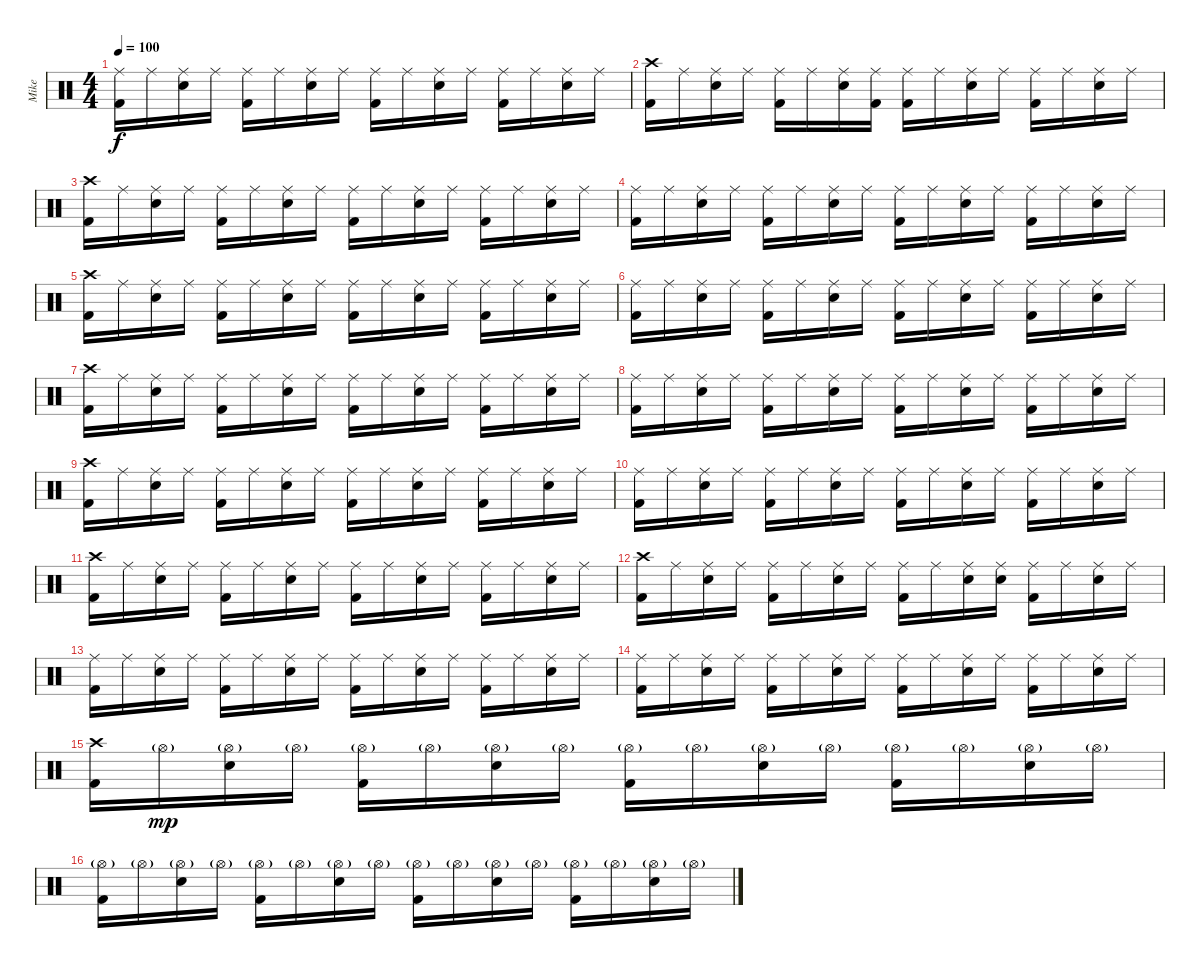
\track ("Mike" "Mike") {instrument percussion}
\staff {score}
\articulation defaults
\ts (4 4)
\tempo 100
\clef neutral
\ks c
("Ride (middle)" "Kick (hit) 2").16{dy f} "Ride (middle)".16 ("Ride (middle)" "Snare (hit) 2").16 "Ride (middle)".16 ("Ride (middle)" "Kick (hit) 2").16 "Ride (middle)".16 ("Ride (middle)" "Snare (hit) 2").16 "Ride (middle)".16 ("Ride (middle)" "Kick (hit) 2").16 "Ride (middle)".16 ("Ride (middle)" "Snare (hit) 2").16 "Ride (middle)".16 ("Ride (middle)" "Kick (hit) 2").16 "Ride (middle)".16 ("Ride (middle)" "Snare (hit) 2").16 "Ride (middle)".16 |
("Crash high (hit)" "Kick (hit) 2").16 "Ride (middle)".16 ("Ride (middle)" "Snare (hit) 2").16 "Ride (middle)".16 ("Ride (middle)" "Kick (hit) 2").16 "Ride (middle)".16 ("Ride (middle)" "Snare (hit) 2").16 ("Ride (middle)" "Kick (hit) 2").16 ("Ride (middle)" "Kick (hit) 2").16 "Ride (middle)".16 ("Ride (middle)" "Snare (hit) 2").16 "Ride (middle)".16 ("Ride (middle)" "Kick (hit) 2").16 "Ride (middle)".16 ("Ride (middle)" "Snare (hit) 2").16 "Ride (middle)".16 |
("Crash high (hit)" "Kick (hit) 2").16 "Ride (middle)".16 ("Ride (middle)" "Snare (hit) 2").16 "Ride (middle)".16 ("Ride (middle)" "Kick (hit) 2").16 "Ride (middle)".16 ("Ride (middle)" "Snare (hit) 2").16 "Ride (middle)".16 ("Ride (middle)" "Kick (hit) 2").16 "Ride (middle)".16 ("Ride (middle)" "Snare (hit) 2").16 "Ride (middle)".16 ("Ride (middle)" "Kick (hit) 2").16 "Ride (middle)".16 ("Ride (middle)" "Snare (hit) 2").16 "Ride (middle)".16 |
("Ride (middle)" "Kick (hit) 2").16 "Ride (middle)".16 ("Ride (middle)" "Snare (hit) 2").16 "Ride (middle)".16 ("Ride (middle)" "Kick (hit) 2").16 "Ride (middle)".16 ("Ride (middle)" "Snare (hit) 2").16 "Ride (middle)".16 ("Ride (middle)" "Kick (hit) 2").16 "Ride (middle)".16 ("Ride (middle)" "Snare (hit) 2").16 "Ride (middle)".16 ("Ride (middle)" "Kick (hit) 2").16 "Ride (middle)".16 ("Ride (middle)" "Snare (hit) 2").16 "Ride (middle)".16 |
("Crash high (hit)" "Kick (hit) 2").16 "Ride (middle)".16 ("Ride (middle)" "Snare (hit) 2").16 "Ride (middle)".16 ("Ride (middle)" "Kick (hit) 2").16 "Ride (middle)".16 ("Ride (middle)" "Snare (hit) 2").16 "Ride (middle)".16 ("Ride (middle)" "Kick (hit) 2").16 "Ride (middle)".16 ("Ride (middle)" "Snare (hit) 2").16 "Ride (middle)".16 ("Ride (middle)" "Kick (hit) 2").16 "Ride (middle)".16 ("Ride (middle)" "Snare (hit) 2").16 "Ride (middle)".16 |
("Ride (middle)" "Kick (hit) 2").16 "Ride (middle)".16 ("Ride (middle)" "Snare (hit) 2").16 "Ride (middle)".16 ("Ride (middle)" "Kick (hit) 2").16 "Ride (middle)".16 ("Ride (middle)" "Snare (hit) 2").16 "Ride (middle)".16 ("Ride (middle)" "Kick (hit) 2").16 "Ride (middle)".16 ("Ride (middle)" "Snare (hit) 2").16 "Ride (middle)".16 ("Ride (middle)" "Kick (hit) 2").16 "Ride (middle)".16 ("Ride (middle)" "Snare (hit) 2").16 "Ride (middle)".16 |
("Crash high (hit)" "Kick (hit) 2").16 "Ride (middle)".16 ("Ride (middle)" "Snare (hit) 2").16 "Ride (middle)".16 ("Ride (middle)" "Kick (hit) 2").16 "Ride (middle)".16 ("Ride (middle)" "Snare (hit) 2").16 "Ride (middle)".16 ("Ride (middle)" "Kick (hit) 2").16 "Ride (middle)".16 ("Ride (middle)" "Snare (hit) 2").16 "Ride (middle)".16 ("Ride (middle)" "Kick (hit) 2").16 "Ride (middle)".16 ("Ride (middle)" "Snare (hit) 2").16 "Ride (middle)".16 |
("Ride (middle)" "Kick (hit) 2").16 "Ride (middle)".16 ("Ride (middle)" "Snare (hit) 2").16 "Ride (middle)".16 ("Ride (middle)" "Kick (hit) 2").16 "Ride (middle)".16 ("Ride (middle)" "Snare (hit) 2").16 "Ride (middle)".16 ("Ride (middle)" "Kick (hit) 2").16 "Ride (middle)".16 ("Ride (middle)" "Snare (hit) 2").16 "Ride (middle)".16 ("Ride (middle)" "Kick (hit) 2").16 "Ride (middle)".16 ("Ride (middle)" "Snare (hit) 2").16 "Ride (middle)".16 |
("Crash high (hit)" "Kick (hit) 2").16 "Ride (middle)".16 ("Ride (middle)" "Snare (hit) 2").16 "Ride (middle)".16 ("Ride (middle)" "Kick (hit) 2").16 "Ride (middle)".16 ("Ride (middle)" "Snare (hit) 2").16 "Ride (middle)".16 ("Ride (middle)" "Kick (hit) 2").16 "Ride (middle)".16 ("Ride (middle)" "Snare (hit) 2").16 "Ride (middle)".16 ("Ride (middle)" "Kick (hit) 2").16 "Ride (middle)".16 ("Ride (middle)" "Snare (hit) 2").16 "Ride (middle)".16 |
("Ride (middle)" "Kick (hit) 2").16 "Ride (middle)".16 ("Ride (middle)" "Snare (hit) 2").16 "Ride (middle)".16 ("Ride (middle)" "Kick (hit) 2").16 "Ride (middle)".16 ("Ride (middle)" "Snare (hit) 2").16 "Ride (middle)".16 ("Ride (middle)" "Kick (hit) 2").16 "Ride (middle)".16 ("Ride (middle)" "Snare (hit) 2").16 "Ride (middle)".16 ("Ride (middle)" "Kick (hit) 2").16 "Ride (middle)".16 ("Ride (middle)" "Snare (hit) 2").16 "Ride (middle)".16 |
("Crash high (hit)" "Kick (hit) 2").16 "Ride (middle)".16 ("Ride (middle)" "Snare (hit) 2").16 "Ride (middle)".16 ("Ride (middle)" "Kick (hit) 2").16 "Ride (middle)".16 ("Ride (middle)" "Snare (hit) 2").16 "Ride (middle)".16 ("Ride (middle)" "Kick (hit) 2").16 "Ride (middle)".16 ("Ride (middle)" "Snare (hit) 2").16 "Ride (middle)".16 ("Ride (middle)" "Kick (hit) 2").16 "Ride (middle)".16 ("Ride (middle)" "Snare (hit) 2").16 "Ride (middle)".16 |
("Crash high (hit)" "Kick (hit) 2").16 "Ride (middle)".16 ("Ride (middle)" "Snare (hit) 2").16 "Ride (middle)".16 ("Ride (middle)" "Kick (hit) 2").16 "Ride (middle)".16 ("Ride (middle)" "Snare (hit) 2").16 "Ride (middle)".16 ("Ride (middle)" "Kick (hit) 2").16 "Ride (middle)".16 ("Ride (middle)" "Snare (hit) 2").16 ("Ride (middle)" "Snare (hit) 2").16 ("Ride (middle)" "Kick (hit) 2").16 "Ride (middle)".16 ("Ride (middle)" "Snare (hit) 2").16 "Ride (middle)".16 |
("Ride (middle)" "Kick (hit) 2").16 "Ride (middle)".16 ("Ride (middle)" "Snare (hit) 2").16 "Ride (middle)".16 ("Ride (middle)" "Kick (hit) 2").16 "Ride (middle)".16 ("Ride (middle)" "Snare (hit) 2").16 "Ride (middle)".16 ("Ride (middle)" "Kick (hit) 2").16 "Ride (middle)".16 ("Ride (middle)" "Snare (hit) 2").16 "Ride (middle)".16 ("Ride (middle)" "Kick (hit) 2").16 "Ride (middle)".16 ("Ride (middle)" "Snare (hit) 2").16 "Ride (middle)".16 |
("Ride (middle)" "Kick (hit) 2").16 "Ride (middle)".16 ("Ride (middle)" "Snare (hit) 2").16 "Ride (middle)".16 ("Ride (middle)" "Kick (hit) 2").16 "Ride (middle)".16 ("Ride (middle)" "Snare (hit) 2").16 "Ride (middle)".16 ("Ride (middle)" "Kick (hit) 2").16 "Ride (middle)".16 ("Ride (middle)" "Snare (hit) 2").16 "Ride (middle)".16 ("Ride (middle)" "Kick (hit) 2").16 "Ride (middle)".16 ("Ride (middle)" "Snare (hit) 2").16 "Ride (middle)".16 |
("Crash high (hit)" "Kick (hit) 2").16 "Hi-Hat (open)"{g}.16{dy mp} ("Hi-Hat (open)"{g} "Snare (hit) 2").16 "Hi-Hat (open)"{g}.16 ("Hi-Hat (open)"{g} "Kick (hit) 2").16 "Hi-Hat (open)"{g}.16 ("Hi-Hat (open)"{g} "Snare (hit) 2").16 "Hi-Hat (open)"{g}.16 ("Hi-Hat (open)"{g} "Kick (hit) 2").16 "Hi-Hat (open)"{g}.16 ("Hi-Hat (open)"{g} "Snare (hit) 2").16 "Hi-Hat (open)"{g}.16 ("Hi-Hat (open)"{g} "Kick (hit) 2").16 "Hi-Hat (open)"{g}.16 ("Hi-Hat (open)"{g} "Snare (hit) 2").16 "Hi-Hat (open)"{g}.16 |
("Hi-Hat (open)"{g} "Kick (hit) 2").16 "Hi-Hat (open)"{g}.16 ("Hi-Hat (open)"{g} "Snare (hit) 2").16 "Hi-Hat (open)"{g}.16 ("Hi-Hat (open)"{g} "Kick (hit) 2").16 "Hi-Hat (open)"{g}.16 ("Hi-Hat (open)"{g} "Snare (hit) 2").16 "Hi-Hat (open)"{g}.16 ("Hi-Hat (open)"{g} "Kick (hit) 2").16 "Hi-Hat (open)"{g}.16 ("Hi-Hat (open)"{g} "Snare (hit) 2").16 "Hi-Hat (open)"{g}.16 ("Hi-Hat (open)"{g} "Kick (hit) 2").16 "Hi-Hat (open)"{g}.16 ("Hi-Hat (open)"{g} "Snare (hit) 2").16 "Hi-Hat (open)"{g}.16
